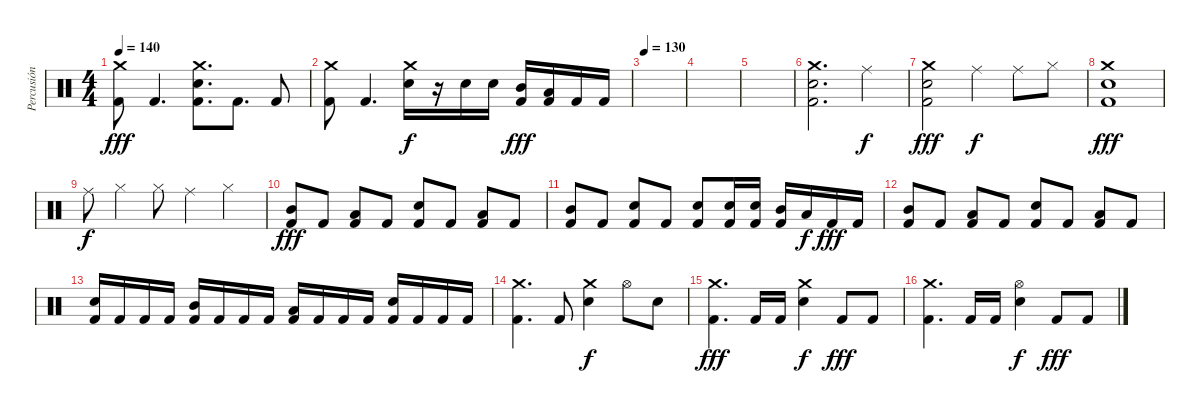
\track ("Percusión" "Percusión") {instrument percussion}
\staff {score}
\articulation defaults
\ts (4 4)
\tempo 140
\clef neutral
\ks c
("Crash medium (hit)" "Kick (hit) 2").8{dy fff} "Kick (hit) 2".4{d} ("Crash medium (hit)" "Electric Snare (hit)" "Kick (hit) 2").8{d} "Kick (hit) 2".8{d} "Kick (hit) 2".8 |
("Crash medium (hit)" "Kick (hit) 2").8 "Kick (hit) 2".4{d} ("Crash medium (hit)" "Electric Snare (hit)").16{dy f} r.16 "Electric Snare (hit)".16 "Electric Snare (hit)".16 ("Mid Tom (hit)" "Kick (hit) 2").16{dy fff} ("Low Tom (hit)" "Kick (hit) 2").16 "Kick (hit) 2".16 "Kick (hit) 2".16 |
\tempo 130
|
|
|
("Crash medium (hit)" "Electric Snare (hit)" "Kick (hit) 2").2{d} "Ride (middle)".4{dy f} |
("Crash medium (hit)" "Electric Snare (hit)" "Kick (hit) 2").2{dy fff} "Ride (middle)".4{dy f} "Ride (middle)".8 "Hi-Hat (closed)".8 |
("Crash medium (hit)" "Electric Snare (hit)" "Kick (hit) 2").1{dy fff} |
"Ride (middle)".8{dy f} "Hi-Hat (closed)".4 "Hi-Hat (closed)".8 "Ride (middle)".4 "Hi-Hat (closed)".4 |
("Mid Tom (hit)" "Kick (hit) 2").8{dy fff} "Kick (hit) 2".8 ("Low Tom (hit)" "Kick (hit) 2").8 "Kick (hit) 2".8 ("Electric Snare (hit)" "Kick (hit) 2").8 "Kick (hit) 2".8 ("Low Tom (hit)" "Kick (hit) 2").8 "Kick (hit) 2".8 |
("Mid Tom (hit)" "Kick (hit) 2").8 "Kick (hit) 2".8 ("Electric Snare (hit)" "Kick (hit) 2").8 "Kick (hit) 2".8 ("Electric Snare (hit)" "Kick (hit) 2").8 ("Electric Snare (hit)" "Kick (hit) 2").16 ("Electric Snare (hit)" "Kick (hit) 2").16 ("Mid Tom (hit)" "Kick (hit) 2").16 "Low Tom (hit)".16{dy f} "Kick (hit) 2".16{dy fff} "Kick (hit) 2".16 |
("Mid Tom (hit)" "Kick (hit) 2").8 "Kick (hit) 2".8 ("Low Tom (hit)" "Kick (hit) 2").8 "Kick (hit) 2".8 ("Electric Snare (hit)" "Kick (hit) 2").8 "Kick (hit) 2".8 ("Low Tom (hit)" "Kick (hit) 2").8 "Kick (hit) 2".8 |
("Electric Snare (hit)" "Kick (hit) 2").16 "Kick (hit) 2".16 "Kick (hit) 2".16 "Kick (hit) 2".16 ("Mid Tom (hit)" "Kick (hit) 2").16 "Kick (hit) 2".16 "Kick (hit) 2".16 "Kick (hit) 2".16 ("Low Tom (hit)" "Kick (hit) 2").16 "Kick (hit) 2".16 "Kick (hit) 2".16 "Kick (hit) 2".16 ("Electric Snare (hit)" "Kick (hit) 2").16 "Kick (hit) 2".16 "Kick (hit) 2".16 "Kick (hit) 2".16 |
("Crash medium (hit)" "Kick (hit) 2").4{d} "Kick (hit) 2".8 ("Crash medium (hit)" "Electric Snare (hit)").4{dy f} "Hi-Hat (open)".8 "Electric Snare (hit)".8 |
("Crash medium (hit)" "Kick (hit) 2").4{d dy fff} "Kick (hit) 2".16 "Kick (hit) 2".16 ("Crash medium (hit)" "Electric Snare (hit)").4{dy f} "Kick (hit) 2".8{dy fff} "Kick (hit) 2".8 |
("Crash medium (hit)" "Kick (hit) 2").4{d} "Kick (hit) 2".16 "Kick (hit) 2".16 ("Hi-Hat (open)" "Electric Snare (hit)").4{dy f} "Kick (hit) 2".8{dy fff} "Kick (hit) 2".8
